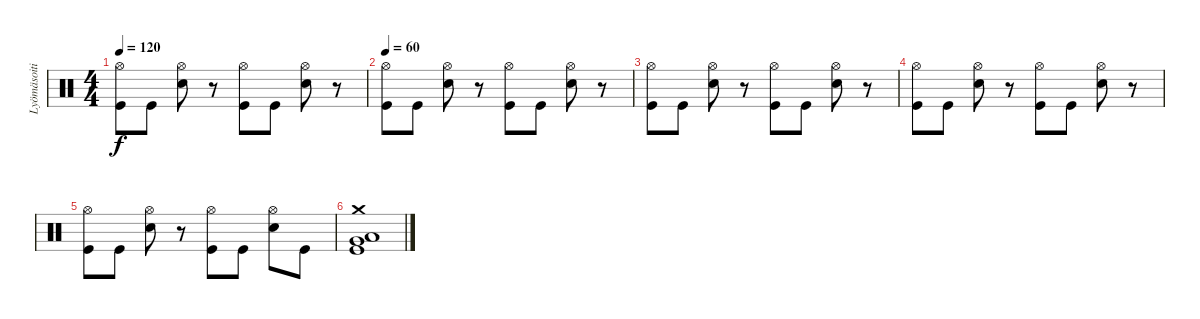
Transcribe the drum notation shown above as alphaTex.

\track ("Lyömäsoitin" "Lyömäsoiti") {instrument percussion}
\staff {score}
\articulation defaults
\ts (4 4)
\tempo 120
\clef neutral
\ks c
("Hi-Hat (open)" "Kick (hit)").8{dy f} "Kick (hit)".8 ("Hi-Hat (open)" "Electric Snare (hit)").8 r.8 ("Hi-Hat (open)" "Kick (hit)").8 "Kick (hit)".8 ("Hi-Hat (open)" "Electric Snare (hit)").8 r.8 |
\tempo 60
("Hi-Hat (open)" "Kick (hit)").8 "Kick (hit)".8 ("Hi-Hat (open)" "Electric Snare (hit)").8 r.8 ("Hi-Hat (open)" "Kick (hit)").8 "Kick (hit)".8 ("Hi-Hat (open)" "Electric Snare (hit)").8 r.8 |
("Hi-Hat (open)" "Kick (hit)").8 "Kick (hit)".8 ("Hi-Hat (open)" "Electric Snare (hit)").8 r.8 ("Hi-Hat (open)" "Kick (hit)").8 "Kick (hit)".8 ("Hi-Hat (open)" "Electric Snare (hit)").8 r.8 |
("Hi-Hat (open)" "Kick (hit)").8 "Kick (hit)".8 ("Hi-Hat (open)" "Electric Snare (hit)").8 r.8 ("Hi-Hat (open)" "Kick (hit)").8 "Kick (hit)".8 ("Hi-Hat (open)" "Electric Snare (hit)").8 r.8 |
("Hi-Hat (open)" "Kick (hit)").8 "Kick (hit)".8 ("Hi-Hat (open)" "Electric Snare (hit)").8 r.8 ("Hi-Hat (open)" "Kick (hit)").8 "Kick (hit)".8 ("Hi-Hat (open)" "Electric Snare (hit)").8 "Kick (hit)".8 |
("Kick (hit)" "Crash medium (hit)" "Low Floor Tom (hit)" "Very Low Tom (hit)").1
